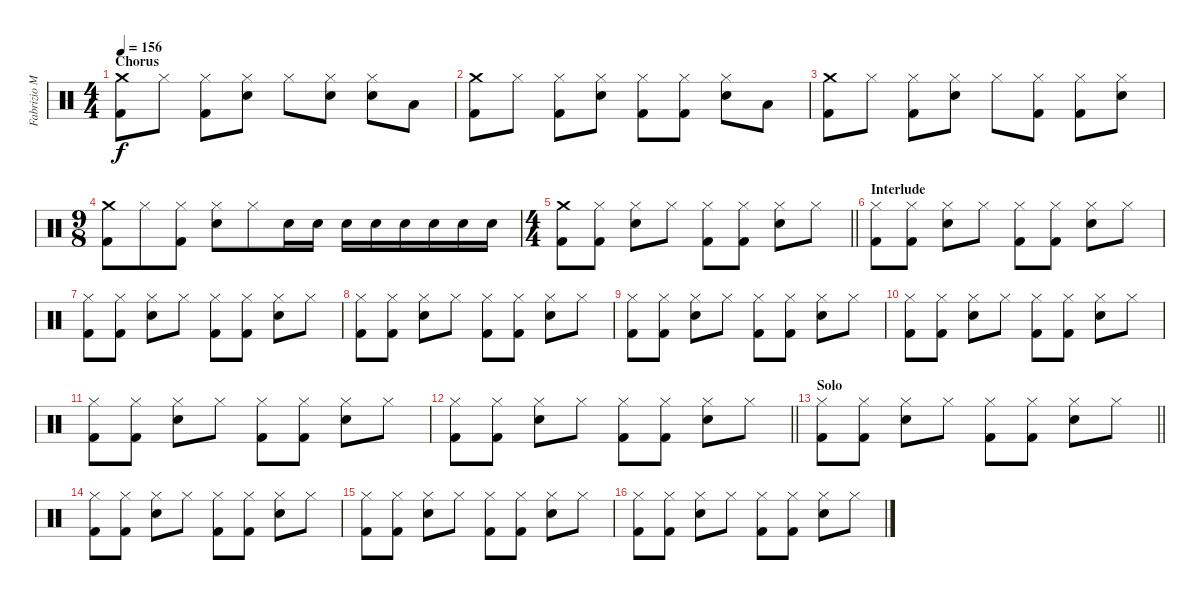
\track ("Fabrizio Moretti (Drums)" "Fabrizio M") {instrument percussion}
\staff {score}
\articulation defaults
\ts (4 4)
\section ("" "Chorus")
\tempo 156
\clef neutral
\ks c
("Crash medium (hit)" "Kick (hit) 2").8{dy f} "Hi-Hat (closed)".8 ("Hi-Hat (closed)" "Kick (hit) 2").8 ("Hi-Hat (closed)" "Snare (hit) 2").8 "Hi-Hat (closed)".8 ("Hi-Hat (closed)" "Snare (hit) 2").8 ("Hi-Hat (closed)" "Snare (hit) 2").8 "Low Tom (hit)".8 |
("Crash medium (hit)" "Kick (hit) 2").8 "Hi-Hat (closed)".8 ("Hi-Hat (closed)" "Kick (hit) 2").8 ("Hi-Hat (closed)" "Snare (hit) 2").8 ("Hi-Hat (closed)" "Kick (hit) 2").8 ("Hi-Hat (closed)" "Kick (hit) 2").8 ("Hi-Hat (closed)" "Snare (hit) 2").8 "Low Tom (hit)".8 |
("Crash medium (hit)" "Kick (hit) 2").8 "Hi-Hat (closed)".8 ("Hi-Hat (closed)" "Kick (hit) 2").8 ("Hi-Hat (closed)" "Snare (hit) 2").8 "Hi-Hat (closed)".8 ("Hi-Hat (closed)" "Kick (hit) 2").8 ("Hi-Hat (closed)" "Kick (hit) 2").8 ("Hi-Hat (closed)" "Snare (hit) 2").8 |
\ts (9 8)
("Crash medium (hit)" "Kick (hit) 2").8 "Hi-Hat (closed)".8 ("Hi-Hat (closed)" "Kick (hit) 2").8 ("Hi-Hat (closed)" "Snare (hit) 2").8 "Hi-Hat (closed)".8 "Snare (hit) 2".16 "Snare (hit) 2".16 "Snare (hit) 2".16 "Snare (hit) 2".16 "Snare (hit) 2".16 "Snare (hit) 2".16 "Snare (hit) 2".16 "Snare (hit) 2".16 |
\ts (4 4)
\barLineRight lightlight
("Crash medium (hit)" "Kick (hit) 2").8 ("Hi-Hat (closed)" "Kick (hit) 2").8 ("Hi-Hat (closed)" "Snare (hit) 2").8 "Hi-Hat (closed)".8 ("Hi-Hat (closed)" "Kick (hit) 2").8 ("Hi-Hat (closed)" "Kick (hit) 2").8 ("Hi-Hat (closed)" "Snare (hit) 2").8 "Hi-Hat (closed)".8 |
\section ("" "Interlude")
("Hi-Hat (closed)" "Kick (hit) 2").8 ("Hi-Hat (closed)" "Kick (hit) 2").8 ("Hi-Hat (closed)" "Snare (hit) 2").8 "Hi-Hat (closed)".8 ("Hi-Hat (closed)" "Kick (hit) 2").8 ("Hi-Hat (closed)" "Kick (hit) 2").8 ("Hi-Hat (closed)" "Snare (hit) 2").8 "Hi-Hat (closed)".8 |
("Hi-Hat (closed)" "Kick (hit) 2").8 ("Hi-Hat (closed)" "Kick (hit) 2").8 ("Hi-Hat (closed)" "Snare (hit) 2").8 "Hi-Hat (closed)".8 ("Hi-Hat (closed)" "Kick (hit) 2").8 ("Hi-Hat (closed)" "Kick (hit) 2").8 ("Hi-Hat (closed)" "Snare (hit) 2").8 "Hi-Hat (closed)".8 |
("Hi-Hat (closed)" "Kick (hit) 2").8 ("Hi-Hat (closed)" "Kick (hit) 2").8 ("Hi-Hat (closed)" "Snare (hit) 2").8 "Hi-Hat (closed)".8 ("Hi-Hat (closed)" "Kick (hit) 2").8 ("Hi-Hat (closed)" "Kick (hit) 2").8 ("Hi-Hat (closed)" "Snare (hit) 2").8 "Hi-Hat (closed)".8 |
("Hi-Hat (closed)" "Kick (hit) 2").8 ("Hi-Hat (closed)" "Kick (hit) 2").8 ("Hi-Hat (closed)" "Snare (hit) 2").8 "Hi-Hat (closed)".8 ("Hi-Hat (closed)" "Kick (hit) 2").8 ("Hi-Hat (closed)" "Kick (hit) 2").8 ("Hi-Hat (closed)" "Snare (hit) 2").8 "Hi-Hat (closed)".8 |
("Hi-Hat (closed)" "Kick (hit) 2").8 ("Hi-Hat (closed)" "Kick (hit) 2").8 ("Hi-Hat (closed)" "Snare (hit) 2").8 "Hi-Hat (closed)".8 ("Hi-Hat (closed)" "Kick (hit) 2").8 ("Hi-Hat (closed)" "Kick (hit) 2").8 ("Hi-Hat (closed)" "Snare (hit) 2").8 "Hi-Hat (closed)".8 |
("Hi-Hat (closed)" "Kick (hit) 2").8 ("Hi-Hat (closed)" "Kick (hit) 2").8 ("Hi-Hat (closed)" "Snare (hit) 2").8 "Hi-Hat (closed)".8 ("Hi-Hat (closed)" "Kick (hit) 2").8 ("Hi-Hat (closed)" "Kick (hit) 2").8 ("Hi-Hat (closed)" "Snare (hit) 2").8 "Hi-Hat (closed)".8 |
\barLineRight lightlight
("Hi-Hat (closed)" "Kick (hit) 2").8 ("Hi-Hat (closed)" "Kick (hit) 2").8 ("Hi-Hat (closed)" "Snare (hit) 2").8 "Hi-Hat (closed)".8 ("Hi-Hat (closed)" "Kick (hit) 2").8 ("Hi-Hat (closed)" "Kick (hit) 2").8 ("Hi-Hat (closed)" "Snare (hit) 2").8 "Hi-Hat (closed)".8 |
\section ("" "Solo")
\barLineRight lightlight
("Hi-Hat (closed)" "Kick (hit) 2").8 ("Hi-Hat (closed)" "Kick (hit) 2").8 ("Hi-Hat (closed)" "Snare (hit) 2").8 "Hi-Hat (closed)".8 ("Hi-Hat (closed)" "Kick (hit) 2").8 ("Hi-Hat (closed)" "Kick (hit) 2").8 ("Hi-Hat (closed)" "Snare (hit) 2").8 "Hi-Hat (closed)".8 |
\section ("" "")
("Hi-Hat (closed)" "Kick (hit) 2").8 ("Hi-Hat (closed)" "Kick (hit) 2").8 ("Hi-Hat (closed)" "Snare (hit) 2").8 "Hi-Hat (closed)".8 ("Hi-Hat (closed)" "Kick (hit) 2").8 ("Hi-Hat (closed)" "Kick (hit) 2").8 ("Hi-Hat (closed)" "Snare (hit) 2").8 "Hi-Hat (closed)".8 |
("Hi-Hat (closed)" "Kick (hit) 2").8 ("Hi-Hat (closed)" "Kick (hit) 2").8 ("Hi-Hat (closed)" "Snare (hit) 2").8 "Hi-Hat (closed)".8 ("Hi-Hat (closed)" "Kick (hit) 2").8 ("Hi-Hat (closed)" "Kick (hit) 2").8 ("Hi-Hat (closed)" "Snare (hit) 2").8 "Hi-Hat (closed)".8 |
("Hi-Hat (closed)" "Kick (hit) 2").8 ("Hi-Hat (closed)" "Kick (hit) 2").8 ("Hi-Hat (closed)" "Snare (hit) 2").8 "Hi-Hat (closed)".8 ("Hi-Hat (closed)" "Kick (hit) 2").8 ("Hi-Hat (closed)" "Kick (hit) 2").8 ("Hi-Hat (closed)" "Snare (hit) 2").8 "Hi-Hat (closed)".8
